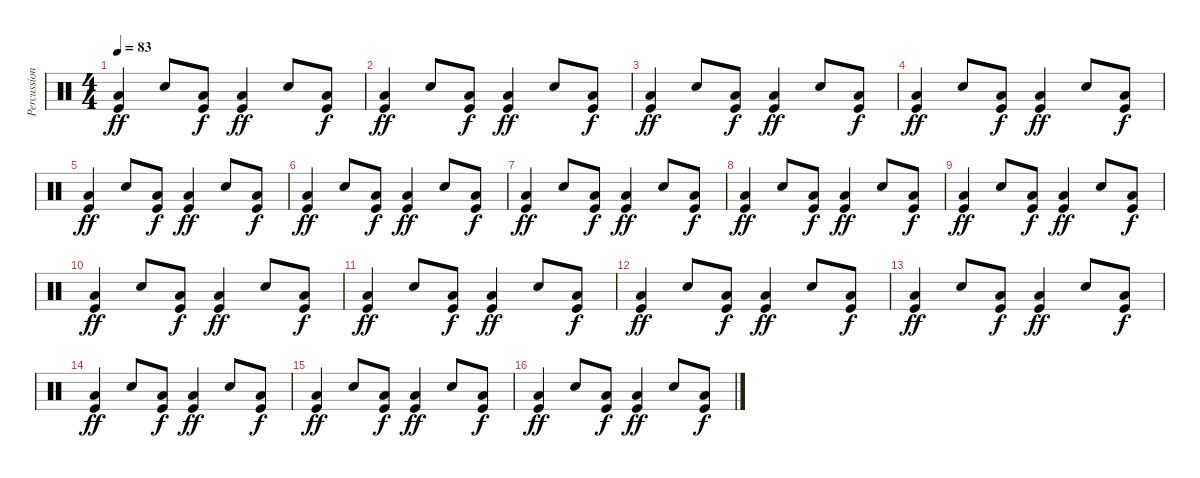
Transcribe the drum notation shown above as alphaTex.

\track ("Percussion" "Percussion") {instrument percussion}
\staff {score}
\articulation defaults
\ts (4 4)
\tempo 83
\clef neutral
\ks c
("Kick (hit)" "Low Tom (hit)").4{dy ff} "Snare (hit) 2".8 ("Kick (hit)" "Low Tom (hit)").8{dy f} ("Kick (hit)" "Low Tom (hit)").4{dy ff} "Snare (hit) 2".8 ("Kick (hit)" "Low Tom (hit)").8{dy f} |
("Kick (hit)" "Low Tom (hit)").4{dy ff} "Snare (hit) 2".8 ("Kick (hit)" "Low Tom (hit)").8{dy f} ("Kick (hit)" "Low Tom (hit)").4{dy ff} "Snare (hit) 2".8 ("Kick (hit)" "Low Tom (hit)").8{dy f} |
("Kick (hit)" "Low Tom (hit)").4{dy ff} "Snare (hit) 2".8 ("Kick (hit)" "Low Tom (hit)").8{dy f} ("Kick (hit)" "Low Tom (hit)").4{dy ff} "Snare (hit) 2".8 ("Kick (hit)" "Low Tom (hit)").8{dy f} |
("Kick (hit)" "Low Tom (hit)").4{dy ff} "Snare (hit) 2".8 ("Kick (hit)" "Low Tom (hit)").8{dy f} ("Kick (hit)" "Low Tom (hit)").4{dy ff} "Snare (hit) 2".8 ("Kick (hit)" "Low Tom (hit)").8{dy f} |
("Kick (hit)" "Low Tom (hit)").4{dy ff} "Snare (hit) 2".8 ("Kick (hit)" "Low Tom (hit)").8{dy f} ("Kick (hit)" "Low Tom (hit)").4{dy ff} "Snare (hit) 2".8 ("Kick (hit)" "Low Tom (hit)").8{dy f} |
("Kick (hit)" "Low Tom (hit)").4{dy ff} "Snare (hit) 2".8 ("Kick (hit)" "Low Tom (hit)").8{dy f} ("Kick (hit)" "Low Tom (hit)").4{dy ff} "Snare (hit) 2".8 ("Kick (hit)" "Low Tom (hit)").8{dy f} |
("Kick (hit)" "Low Tom (hit)").4{dy ff} "Snare (hit) 2".8 ("Kick (hit)" "Low Tom (hit)").8{dy f} ("Kick (hit)" "Low Tom (hit)").4{dy ff} "Snare (hit) 2".8 ("Kick (hit)" "Low Tom (hit)").8{dy f} |
("Kick (hit)" "Low Tom (hit)").4{dy ff} "Snare (hit) 2".8 ("Kick (hit)" "Low Tom (hit)").8{dy f} ("Kick (hit)" "Low Tom (hit)").4{dy ff} "Snare (hit) 2".8 ("Kick (hit)" "Low Tom (hit)").8{dy f} |
("Kick (hit)" "Low Tom (hit)").4{dy ff} "Snare (hit) 2".8 ("Kick (hit)" "Low Tom (hit)").8{dy f} ("Kick (hit)" "Low Tom (hit)").4{dy ff} "Snare (hit) 2".8 ("Kick (hit)" "Low Tom (hit)").8{dy f} |
("Kick (hit)" "Low Tom (hit)").4{dy ff} "Snare (hit) 2".8 ("Kick (hit)" "Low Tom (hit)").8{dy f} ("Kick (hit)" "Low Tom (hit)").4{dy ff} "Snare (hit) 2".8 ("Kick (hit)" "Low Tom (hit)").8{dy f} |
("Kick (hit)" "Low Tom (hit)").4{dy ff} "Snare (hit) 2".8 ("Kick (hit)" "Low Tom (hit)").8{dy f} ("Kick (hit)" "Low Tom (hit)").4{dy ff} "Snare (hit) 2".8 ("Kick (hit)" "Low Tom (hit)").8{dy f} |
("Kick (hit)" "Low Tom (hit)").4{dy ff} "Snare (hit) 2".8 ("Kick (hit)" "Low Tom (hit)").8{dy f} ("Kick (hit)" "Low Tom (hit)").4{dy ff} "Snare (hit) 2".8 ("Kick (hit)" "Low Tom (hit)").8{dy f} |
("Kick (hit)" "Low Tom (hit)").4{dy ff} "Snare (hit) 2".8 ("Kick (hit)" "Low Tom (hit)").8{dy f} ("Kick (hit)" "Low Tom (hit)").4{dy ff} "Snare (hit) 2".8 ("Kick (hit)" "Low Tom (hit)").8{dy f} |
("Kick (hit)" "Low Tom (hit)").4{dy ff} "Snare (hit) 2".8 ("Kick (hit)" "Low Tom (hit)").8{dy f} ("Kick (hit)" "Low Tom (hit)").4{dy ff} "Snare (hit) 2".8 ("Kick (hit)" "Low Tom (hit)").8{dy f} |
("Kick (hit)" "Low Tom (hit)").4{dy ff} "Snare (hit) 2".8 ("Kick (hit)" "Low Tom (hit)").8{dy f} ("Kick (hit)" "Low Tom (hit)").4{dy ff} "Snare (hit) 2".8 ("Kick (hit)" "Low Tom (hit)").8{dy f} |
("Kick (hit)" "Low Tom (hit)").4{dy ff} "Snare (hit) 2".8 ("Kick (hit)" "Low Tom (hit)").8{dy f} ("Kick (hit)" "Low Tom (hit)").4{dy ff} "Snare (hit) 2".8 ("Kick (hit)" "Low Tom (hit)").8{dy f}
